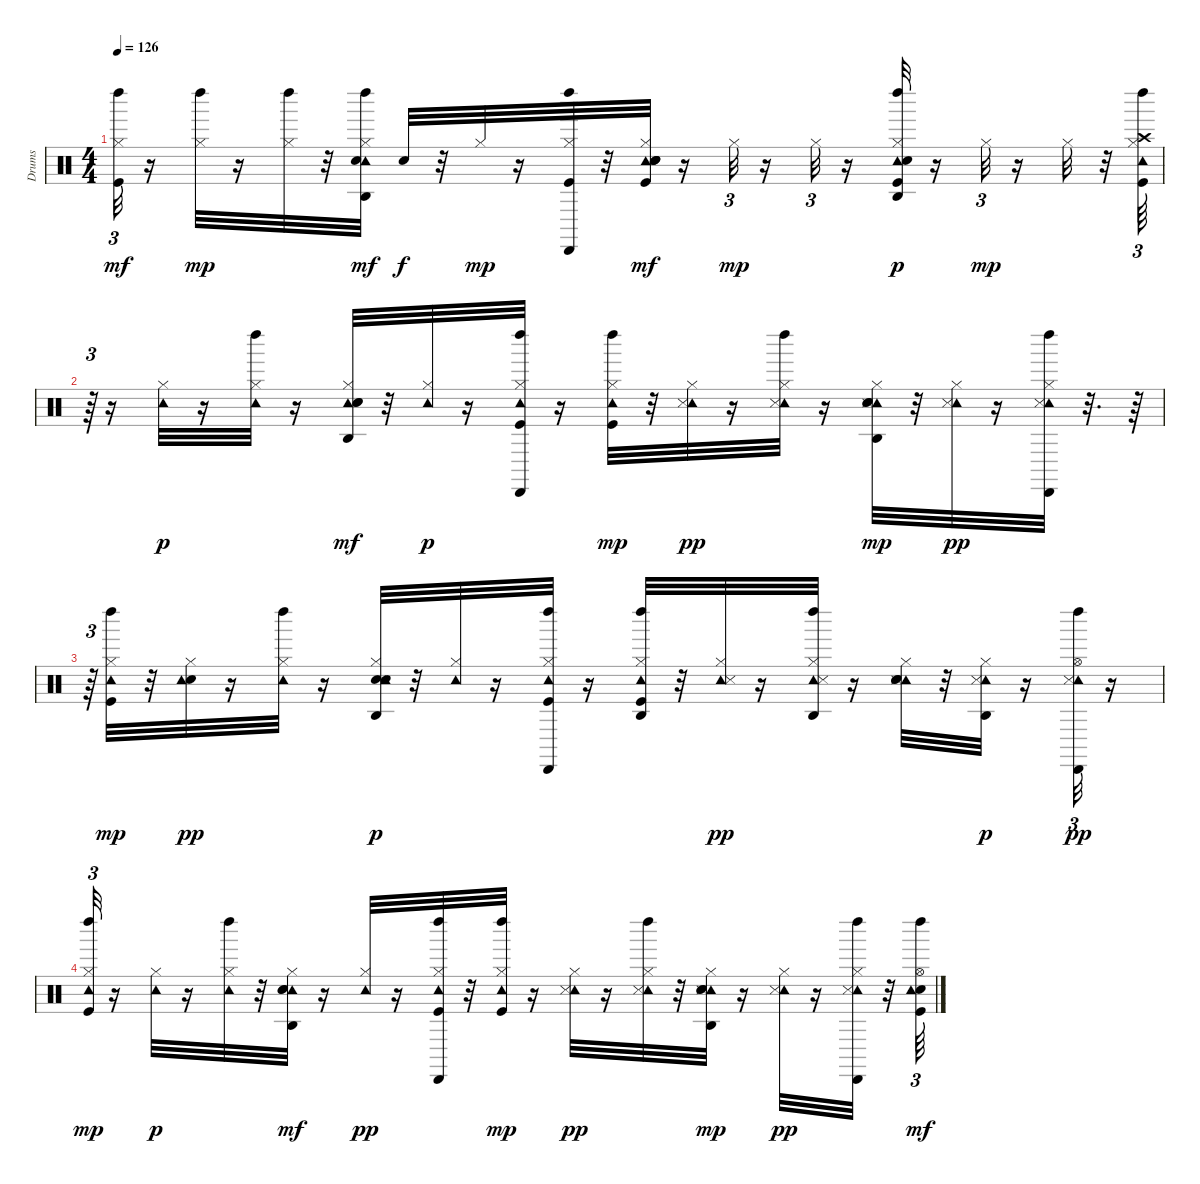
\track ("Drums" "Drums") {instrument percussion}
\staff {score}
\articulation defaults
\ts (4 4)
\tempo 126
\clef neutral
\ks c
("Kick (hit)" "Hi-Hat (closed)" "Left Maraca (hit)").32{tu (3 2) dy mf} r.16 ("Hi-Hat (closed)" "Left Maraca (hit)").32{dy mp} r.16 ("Hi-Hat (closed)" "Left Maraca (hit)").32 r.32 ("Hi-Hat (closed)" "Tambourine (hit)" "Agogo high (hit)" "Snare (hit) 2" "Left Maraca (hit)").32{dy mf} "Hand Clap (hit)".32{dy f} r.32 "Hi-Hat (closed)".32{dy mp} r.16 ("Cabasa (hit)" "Kick (hit)" "Hi-Hat (closed)" "Left Maraca (hit)").32 r.32 ("Hi-Hat (closed)" "Tambourine (hit)" "Kick (hit)" "Electric Snare (hit)" "Hand Clap (hit)" "Snare (hit) 2").32{dy mf} r.16 "Hi-Hat (closed)".32{tu (3 2) dy mp} r.16 "Hi-Hat (closed)".32{tu (3 2)} r.16 ("Tambourine (hit)" "Kick (hit)" "Snare (hit) 2" "Left Maraca (hit)" "Agogo high (hit)" "Hi-Hat (closed)").32{dy p} r.16 "Hi-Hat (closed)".32{tu (3 2) dy mp} r.16 "Hi-Hat (closed)".32 r.32 ("Crash high (hit)" "Kick (hit)" "Hi-Hat (closed)" "Left Maraca (hit)" "Tambourine (hit)").64{tu (3 2)} |
r.64{tu (3 2)} r.16 ("Hi-Hat (closed)" "Tambourine (hit)").32{dy p} r.16 ("Hi-Hat (closed)" "Tambourine (hit)" "Left Maraca (hit)").32 r.16 ("Hi-Hat (closed)" "Tambourine (hit)" "Agogo high (hit)" "Snare (hit) 2" "Hand Clap (hit)").32{dy mf} r.32 ("Hi-Hat (closed)" "Tambourine (hit)").32{dy p} r.16 ("Cabasa (hit)" "Kick (hit)" "Hi-Hat (closed)" "Tambourine (hit)" "Left Maraca (hit)").32 r.16 ("Hi-Hat (closed)" "Tambourine (hit)" "Kick (hit)" "Left Maraca (hit)").32{dy mp} r.32 ("Hi-Hat (closed)" "Tambourine (hit)" "Snare (side stick) 3").32{dy pp} r.16 ("Hi-Hat (closed)" "Left Maraca (hit)" "Tambourine (hit)" "Snare (side stick) 3").32 r.16 ("Hi-Hat (closed)" "Tambourine (hit)" "Hand Clap (hit)" "Snare (hit) 2" "Snare (side stick) 3" "Agogo high (hit)").32{dy mp} r.32 ("Hi-Hat (closed)" "Tambourine (hit)" "Snare (side stick) 3").32{dy pp} r.16 ("Cabasa (hit)" "Hi-Hat (closed)" "Left Maraca (hit)" "Tambourine (hit)" "Snare (side stick) 3").32 r.32{d} r.64 |
r.64{tu (3 2)} ("Tambourine (hit)" "Kick (hit)" "Hi-Hat (closed)" "Left Maraca (hit)").32{dy mp} r.32 ("Electric Snare (hit)" "Hi-Hat (closed)" "Tambourine (hit)").32{dy pp} r.16 ("Left Maraca (hit)" "Hi-Hat (closed)" "Tambourine (hit)").32 r.16 ("Snare (hit) 2" "Hi-Hat (closed)" "Tambourine (hit)" "Agogo high (hit)" "Hand Clap (hit)").32{dy p} r.32 ("Hi-Hat (closed)" "Tambourine (hit)").32 r.16 ("Kick (hit)" "Hi-Hat (closed)" "Left Maraca (hit)" "Tambourine (hit)" "Cabasa (hit)").32 r.16 ("Tambourine (hit)" "Kick (hit)" "Hi-Hat (closed)" "Left Maraca (hit)" "Agogo high (hit)").32 r.32 ("Hi-Hat (closed)" "Tambourine (hit)" "Snare (side stick) 3").32{dy pp} r.16 ("Hi-Hat (closed)" "Left Maraca (hit)" "Tambourine (hit)" "Agogo high (hit)" "Snare (side stick) 3").32 r.16 ("Hi-Hat (closed)" "Tambourine (hit)" "Hand Clap (hit)" "Snare (hit) 2" "Snare (side stick) 3").32 r.32 ("Hi-Hat (closed)" "Tambourine (hit)" "Snare (side stick) 3" "Agogo high (hit)").32{dy p} r.16 ("Hi-Hat (open)" "Left Maraca (hit)" "Tambourine (hit)" "Cabasa (hit)" "Snare (side stick) 3").32{tu (3 2) dy pp} r.16 |
("Kick (hit)" "Hi-Hat (closed)" "Left Maraca (hit)" "Tambourine (hit)").32{tu (3 2) dy mp} r.16 ("Hi-Hat (closed)" "Tambourine (hit)").32{dy p} r.16 ("Hi-Hat (closed)" "Tambourine (hit)" "Left Maraca (hit)").32 r.32 ("Hi-Hat (closed)" "Tambourine (hit)" "Agogo high (hit)" "Snare (hit) 2" "Hand Clap (hit)").32{dy mf} r.16 ("Hi-Hat (closed)" "Tambourine (hit)").32{dy pp} r.16 ("Cabasa (hit)" "Kick (hit)" "Hi-Hat (closed)" "Tambourine (hit)" "Left Maraca (hit)").32 r.32 ("Hi-Hat (closed)" "Tambourine (hit)" "Kick (hit)" "Left Maraca (hit)").32{dy mp} r.16 ("Hi-Hat (closed)" "Tambourine (hit)" "Snare (side stick) 3").32{dy pp} r.16 ("Hi-Hat (closed)" "Left Maraca (hit)" "Tambourine (hit)" "Snare (side stick) 3").32 r.32 ("Hi-Hat (closed)" "Tambourine (hit)" "Hand Clap (hit)" "Snare (hit) 2" "Snare (side stick) 3" "Agogo high (hit)").32{dy mp} r.16 ("Hi-Hat (closed)" "Tambourine (hit)" "Snare (side stick) 3").32{dy pp} r.16 ("Cabasa (hit)" "Hi-Hat (closed)" "Left Maraca (hit)" "Tambourine (hit)" "Snare (side stick) 3").32 r.32 ("Snare (hit) 2" "Kick (hit)" "Hi-Hat (open)" "Left Maraca (hit)" "Tambourine (hit)").64{tu (3 2) dy mf}
